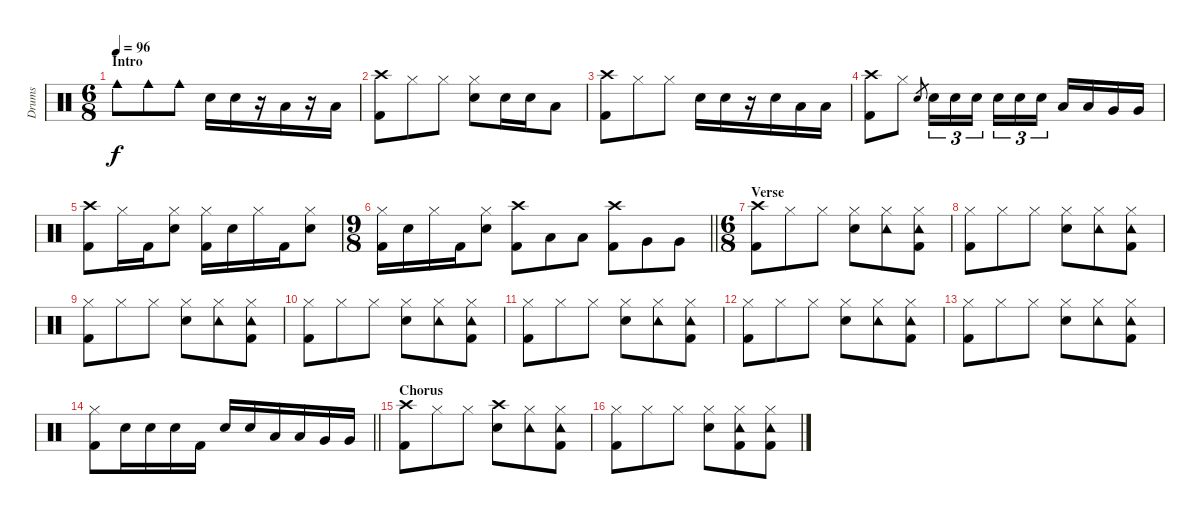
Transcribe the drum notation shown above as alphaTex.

\track ("Drums" "Drums") {instrument percussion}
\staff {score}
\articulation defaults
\ts (6 8)
\section ("" "Intro")
\tempo 96
\clef neutral
\ks c "Cowbell medium (hit)".8{dy f} "Cowbell medium (hit)".8 "Cowbell medium (hit)".8 "Snare (hit) 2".16 "Snare (hit) 2".16
r.16 "Low Tom (hit)".16 r.16 "Low Tom (hit)".16 |
("Crash high (hit)" "Kick (hit) 2").8 "Hi-Hat (closed)".8 "Hi-Hat (closed)".8 ("Hi-Hat (closed)" "Snare (hit) 2").8 "Snare (hit) 2".16 "Snare (hit) 2".16 "Low Tom (hit)".8 |
("Crash high (hit)" "Kick (hit) 2").8 "Hi-Hat (closed)".8 "Hi-Hat (closed)".8 "Snare (hit) 2".16 "Snare (hit) 2".16 r.16 "Snare (hit) 2".16 "Low Tom (hit)".16 "Low Tom (hit)".16 |
("Crash high (hit)" "Kick (hit) 2").8 "Hi-Hat (closed)".8 "Snare (hit) 2".8{gr} "Snare (hit) 2".16{tu (3 2)} "Snare (hit) 2".16{tu (3 2)} "Snare (hit) 2".16{tu (3 2)} "Snare (hit) 2".16{tu (3 2)} "Snare (hit) 2".16{tu (3 2)} "Snare (hit) 2".16{tu (3 2) beam splitsecondary} "Low Tom (hit)".16 "Low Tom (hit)".16 "Very Low Tom (hit)".16 "Very Low Tom (hit)".16 |
("Crash high (hit)" "Kick (hit) 2").8 "Hi-Hat (closed)".16 "Kick (hit) 2".16 ("Hi-Hat (closed)" "Snare (hit) 2").8 ("Hi-Hat (closed)" "Kick (hit) 2").16 "Snare (hit) 2".16 "Hi-Hat (closed)".16 "Kick (hit) 2".16 ("Hi-Hat (closed)" "Snare (hit) 2").8 |
\ts (9 8)
\barLineRight lightlight
("Hi-Hat (closed)" "Kick (hit) 2").16 "Snare (hit) 2".16 "Hi-Hat (closed)".16 "Kick (hit) 2".16 ("Hi-Hat (closed)" "Snare (hit) 2").8 ("Crash high (hit)" "Kick (hit) 2").8 "Low Tom (hit)".8 "Low Tom (hit)".8 ("Crash high (hit)" "Kick (hit) 2").8 "Very Low Tom (hit)".8 "Very Low Tom (hit)".8 |
\ts (6 8)
\section ("" "Verse")
("Crash high (hit)" "Kick (hit) 2").8 "Hi-Hat (closed)".8 "Hi-Hat (closed)".8 ("Hi-Hat (closed)" "Snare (hit) 2").8 ("Hi-Hat (closed)" "Tambourine (hit)").8 ("Hi-Hat (closed)" "Tambourine (hit)" "Kick (hit) 2").8 |
("Hi-Hat (closed)" "Kick (hit) 2").8 "Hi-Hat (closed)".8 "Hi-Hat (closed)".8 ("Hi-Hat (closed)" "Snare (hit) 2").8 ("Hi-Hat (closed)" "Tambourine (hit)").8 ("Hi-Hat (closed)" "Tambourine (hit)" "Kick (hit) 2").8 |
("Hi-Hat (closed)" "Kick (hit) 2").8 "Hi-Hat (closed)".8 "Hi-Hat (closed)".8 ("Hi-Hat (closed)" "Snare (hit) 2").8 ("Hi-Hat (closed)" "Tambourine (hit)").8 ("Hi-Hat (closed)" "Tambourine (hit)" "Kick (hit) 2").8 |
("Hi-Hat (closed)" "Kick (hit) 2").8 "Hi-Hat (closed)".8 "Hi-Hat (closed)".8 ("Hi-Hat (closed)" "Snare (hit) 2").8 ("Hi-Hat (closed)" "Tambourine (hit)").8 ("Hi-Hat (closed)" "Tambourine (hit)" "Kick (hit) 2").8 |
("Hi-Hat (closed)" "Kick (hit) 2").8 "Hi-Hat (closed)".8 "Hi-Hat (closed)".8 ("Hi-Hat (closed)" "Snare (hit) 2").8 ("Hi-Hat (closed)" "Tambourine (hit)").8 ("Hi-Hat (closed)" "Tambourine (hit)" "Kick (hit) 2").8 |
("Hi-Hat (closed)" "Kick (hit) 2").8 "Hi-Hat (closed)".8 "Hi-Hat (closed)".8 ("Hi-Hat (closed)" "Snare (hit) 2").8 ("Hi-Hat (closed)" "Tambourine (hit)").8 ("Hi-Hat (closed)" "Tambourine (hit)" "Kick (hit) 2").8 |
("Hi-Hat (closed)" "Kick (hit) 2").8 "Hi-Hat (closed)".8 "Hi-Hat (closed)".8 ("Hi-Hat (closed)" "Snare (hit) 2").8 ("Hi-Hat (closed)" "Tambourine (hit)").8 ("Hi-Hat (closed)" "Tambourine (hit)" "Kick (hit) 2").8 |
\barLineRight lightlight
("Hi-Hat (closed)" "Kick (hit) 2").8 "Snare (hit) 2".16 "Snare (hit) 2".16 "Snare (hit) 2".16 "Kick (hit) 2".16 "Snare (hit) 2".16 "Snare (hit) 2".16 "Low Tom (hit)".16 "Low Tom (hit)".16 "Very Low Tom (hit)".16 "Very Low Tom (hit)".16 |
\section ("" "Chorus")
("Crash high (hit)" "Kick (hit) 2").8 "Hi-Hat (closed)".8 "Hi-Hat (closed)".8 ("Crash high (hit)" "Snare (hit) 2").8 ("Hi-Hat (closed)" "Tambourine (hit)").8 ("Hi-Hat (closed)" "Tambourine (hit)" "Kick (hit) 2").8 |
("Hi-Hat (closed)" "Kick (hit) 2").8 "Hi-Hat (closed)".8 "Hi-Hat (closed)".8 ("Hi-Hat (closed)" "Snare (hit) 2").8 ("Hi-Hat (closed)" "Tambourine (hit)" "Kick (hit) 2").8 ("Hi-Hat (closed)" "Tambourine (hit)" "Kick (hit) 2").8
